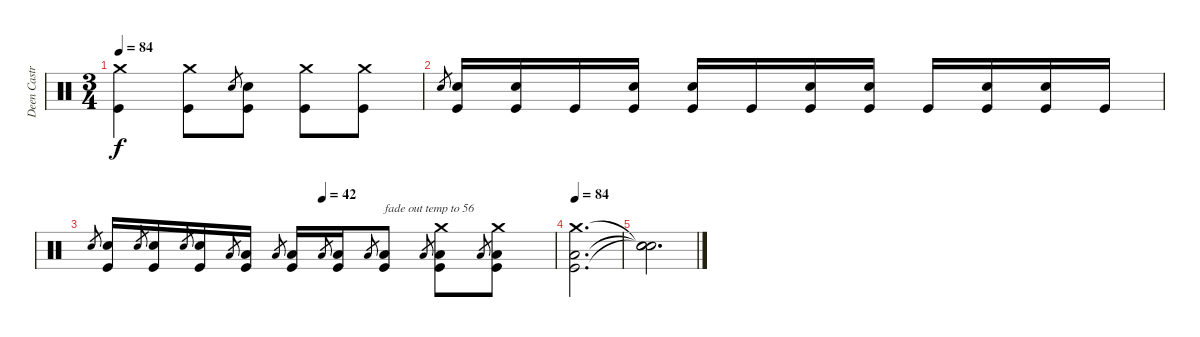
\track ("Deen Castronovo" "Deen Castr") {instrument percussion}
\staff {score}
\articulation defaults
\ts (3 4)
\tempo 84
\clef neutral
\ks c
("Crash medium (hit)" "Kick (hit)").4{dy f} ("Crash medium (hit)" "Kick (hit)").8 "Snare (hit)"{x}.8{gr} ("Snare (hit) 2" "Kick (hit)").8 ("Crash medium (hit)" "Kick (hit)").8 ("Crash medium (hit)" "Kick (hit)").8 |
"Snare (hit) 2".8{gr} ("Snare (hit) 2" "Kick (hit)").16 ("Snare (hit) 2" "Kick (hit)").16 "Kick (hit)".16 ("Snare (hit) 2" "Kick (hit)").16 ("Snare (hit) 2" "Kick (hit)").16 "Kick (hit)".16 ("Snare (hit) 2" "Kick (hit)").16 ("Snare (hit) 2" "Kick (hit)").16 "Kick (hit)".16 ("Snare (hit) 2" "Kick (hit)").16 ("Snare (hit) 2" "Kick (hit)").16 "Kick (hit)".16 |
\tempo (42 0.5)
"Snare (hit) 2".8{gr} ("Snare (hit) 2" "Kick (hit)").16 "Snare (hit) 2".8{gr} ("Snare (hit) 2" "Kick (hit)").16 "Snare (hit) 2".8{gr} ("Snare (hit) 2" "Kick (hit)").16 "Low Tom (hit)".8{gr} ("Low Tom (hit)" "Kick (hit)").16 "Low Tom (hit)".8{gr} ("Low Tom (hit)" "Kick (hit)").16 "Low Tom (hit)".8{gr} ("Low Tom (hit)" "Kick (hit)").16 "Low Tom (hit)".8{gr} ("Low Tom (hit)" "Kick (hit)").8{txt "fade out temp to 56"} "Low Tom (hit)".8{gr} ("Crash medium (hit)" "Low Tom (hit)" "Kick (hit)").8 "Low Tom (hit)".8{gr} ("Crash medium (hit)" "Low Tom (hit)" "Kick (hit)").8 |
\tempo 84
("Crash medium (hit)" "Low Tom (hit)" "Kick (hit)").2{d} |
("Snare (hit)"{t} "Snare (hit)"{t} "Snare (hit)"{t}).2{d}
